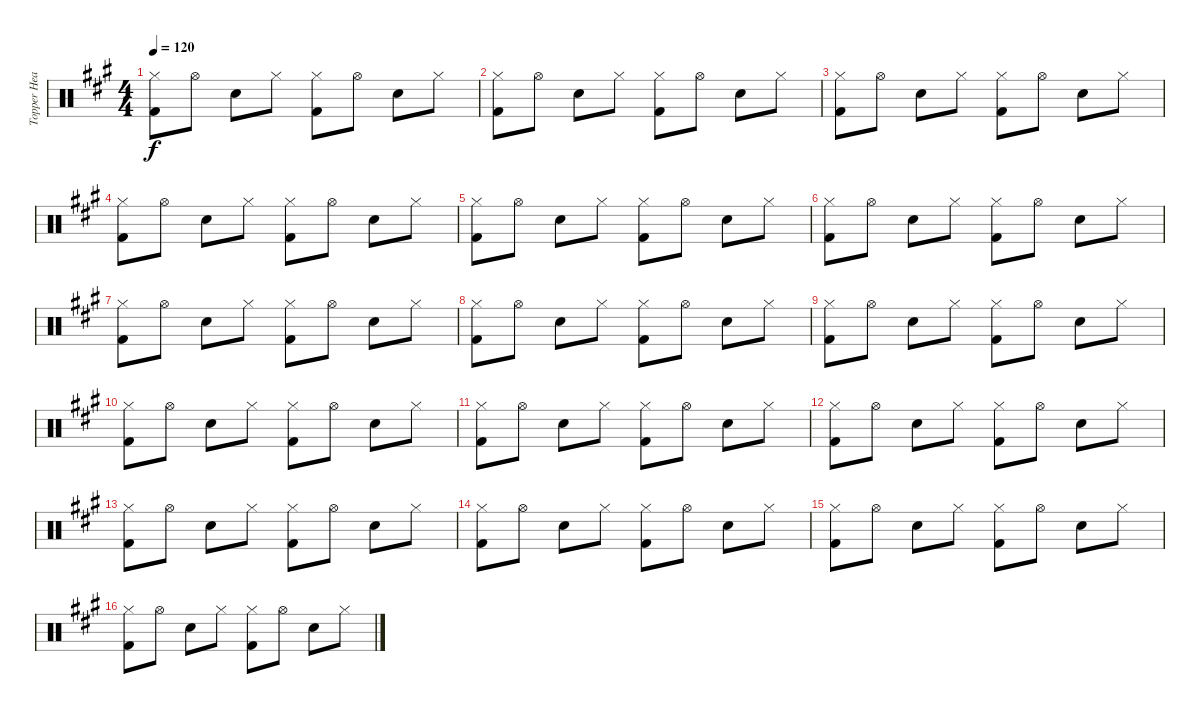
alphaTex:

\track ("Topper Headon - Drums" "Topper Hea") {instrument percussion}
\staff {score}
\articulation defaults
\ts (4 4)
\tempo 120
\clef neutral
\ks a
("Hi-Hat (closed)" "Kick (hit) 2").8{dy f} "Hi-Hat (open)".8 "Electric Snare (hit)".8 "Hi-Hat (closed)".8 ("Hi-Hat (closed)" "Kick (hit) 2").8 "Hi-Hat (open)".8 "Electric Snare (hit)".8 "Hi-Hat (closed)".8 |
("Hi-Hat (closed)" "Kick (hit) 2").8 "Hi-Hat (open)".8 "Electric Snare (hit)".8 "Hi-Hat (closed)".8 ("Hi-Hat (closed)" "Kick (hit) 2").8 "Hi-Hat (open)".8 "Electric Snare (hit)".8 "Hi-Hat (closed)".8 |
("Hi-Hat (closed)" "Kick (hit) 2").8 "Hi-Hat (open)".8 "Electric Snare (hit)".8 "Hi-Hat (closed)".8 ("Hi-Hat (closed)" "Kick (hit) 2").8 "Hi-Hat (open)".8 "Electric Snare (hit)".8 "Hi-Hat (closed)".8 |
("Hi-Hat (closed)" "Kick (hit) 2").8 "Hi-Hat (open)".8 "Electric Snare (hit)".8 "Hi-Hat (closed)".8 ("Hi-Hat (closed)" "Kick (hit) 2").8 "Hi-Hat (open)".8 "Electric Snare (hit)".8 "Hi-Hat (closed)".8 |
("Hi-Hat (closed)" "Kick (hit) 2").8 "Hi-Hat (open)".8 "Electric Snare (hit)".8 "Hi-Hat (closed)".8 ("Hi-Hat (closed)" "Kick (hit) 2").8 "Hi-Hat (open)".8 "Electric Snare (hit)".8 "Hi-Hat (closed)".8 |
("Hi-Hat (closed)" "Kick (hit) 2").8 "Hi-Hat (open)".8 "Electric Snare (hit)".8 "Hi-Hat (closed)".8 ("Hi-Hat (closed)" "Kick (hit) 2").8 "Hi-Hat (open)".8 "Electric Snare (hit)".8 "Hi-Hat (closed)".8 |
("Hi-Hat (closed)" "Kick (hit) 2").8 "Hi-Hat (open)".8 "Electric Snare (hit)".8 "Hi-Hat (closed)".8 ("Hi-Hat (closed)" "Kick (hit) 2").8 "Hi-Hat (open)".8 "Electric Snare (hit)".8 "Hi-Hat (closed)".8 |
("Hi-Hat (closed)" "Kick (hit) 2").8 "Hi-Hat (open)".8 "Electric Snare (hit)".8 "Hi-Hat (closed)".8 ("Hi-Hat (closed)" "Kick (hit) 2").8 "Hi-Hat (open)".8 "Electric Snare (hit)".8 "Hi-Hat (closed)".8 |
("Hi-Hat (closed)" "Kick (hit) 2").8 "Hi-Hat (open)".8 "Electric Snare (hit)".8 "Hi-Hat (closed)".8 ("Hi-Hat (closed)" "Kick (hit) 2").8 "Hi-Hat (open)".8 "Electric Snare (hit)".8 "Hi-Hat (closed)".8 |
("Hi-Hat (closed)" "Kick (hit) 2").8 "Hi-Hat (open)".8 "Electric Snare (hit)".8 "Hi-Hat (closed)".8 ("Hi-Hat (closed)" "Kick (hit) 2").8 "Hi-Hat (open)".8 "Electric Snare (hit)".8 "Hi-Hat (closed)".8 |
("Hi-Hat (closed)" "Kick (hit) 2").8 "Hi-Hat (open)".8 "Electric Snare (hit)".8 "Hi-Hat (closed)".8 ("Hi-Hat (closed)" "Kick (hit) 2").8 "Hi-Hat (open)".8 "Electric Snare (hit)".8 "Hi-Hat (closed)".8 |
("Hi-Hat (closed)" "Kick (hit) 2").8 "Hi-Hat (open)".8 "Electric Snare (hit)".8 "Hi-Hat (closed)".8 ("Hi-Hat (closed)" "Kick (hit) 2").8 "Hi-Hat (open)".8 "Electric Snare (hit)".8 "Hi-Hat (closed)".8 |
("Hi-Hat (closed)" "Kick (hit) 2").8 "Hi-Hat (open)".8 "Electric Snare (hit)".8 "Hi-Hat (closed)".8 ("Hi-Hat (closed)" "Kick (hit) 2").8 "Hi-Hat (open)".8 "Electric Snare (hit)".8 "Hi-Hat (closed)".8 |
("Hi-Hat (closed)" "Kick (hit) 2").8 "Hi-Hat (open)".8 "Electric Snare (hit)".8 "Hi-Hat (closed)".8 ("Hi-Hat (closed)" "Kick (hit) 2").8 "Hi-Hat (open)".8 "Electric Snare (hit)".8 "Hi-Hat (closed)".8 |
("Hi-Hat (closed)" "Kick (hit) 2").8 "Hi-Hat (open)".8 "Electric Snare (hit)".8 "Hi-Hat (closed)".8 ("Hi-Hat (closed)" "Kick (hit) 2").8 "Hi-Hat (open)".8 "Electric Snare (hit)".8 "Hi-Hat (closed)".8 |
("Hi-Hat (closed)" "Kick (hit) 2").8 "Hi-Hat (open)".8 "Electric Snare (hit)".8 "Hi-Hat (closed)".8 ("Hi-Hat (closed)" "Kick (hit) 2").8 "Hi-Hat (open)".8 "Electric Snare (hit)".8 "Hi-Hat (closed)".8
